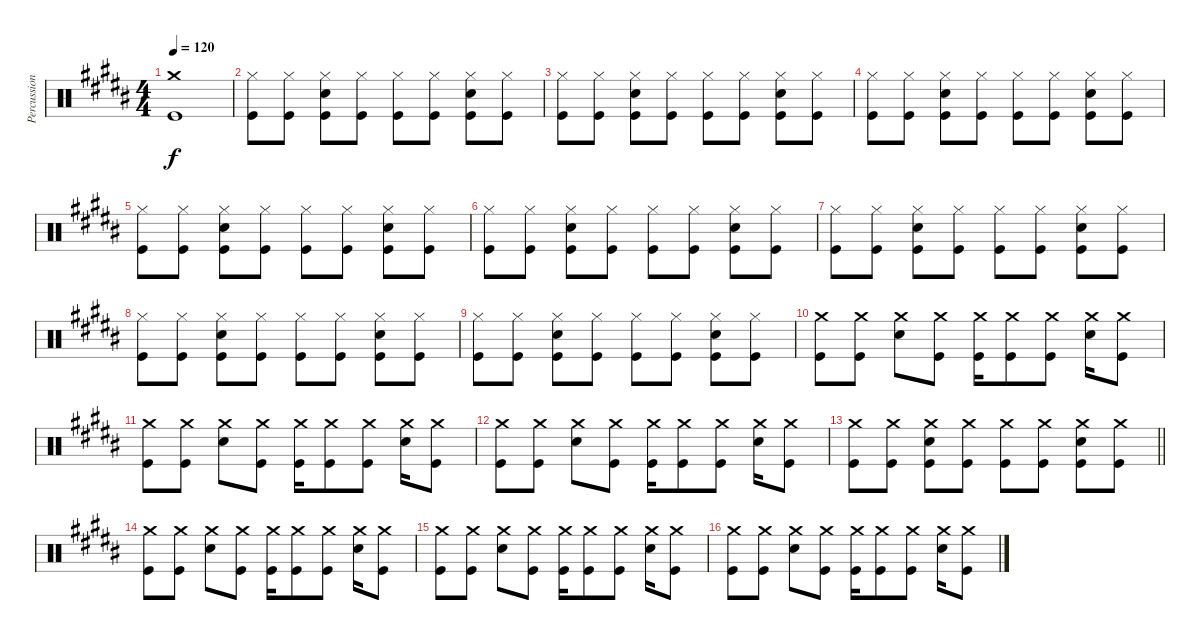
\track ("Percussion" "Percussion") {instrument percussion}
\staff {score}
\articulation defaults
\ts (4 4)
\tempo 120
\clef neutral
\ks b
("Crash medium (hit)" "Kick (hit)").1{dy f} |
("Hi-Hat (closed)" "Kick (hit)").8 ("Hi-Hat (closed)" "Kick (hit)").8 ("Hi-Hat (closed)" "Electric Snare (hit)" "Kick (hit)").8 ("Hi-Hat (closed)" "Kick (hit)").8 ("Hi-Hat (closed)" "Kick (hit)").8 ("Hi-Hat (closed)" "Kick (hit)").8 ("Hi-Hat (closed)" "Electric Snare (hit)" "Kick (hit)").8 ("Hi-Hat (closed)" "Kick (hit)").8 |
("Hi-Hat (closed)" "Kick (hit)").8 ("Hi-Hat (closed)" "Kick (hit)").8 ("Hi-Hat (closed)" "Electric Snare (hit)" "Kick (hit)").8 ("Hi-Hat (closed)" "Kick (hit)").8 ("Hi-Hat (closed)" "Kick (hit)").8 ("Hi-Hat (closed)" "Kick (hit)").8 ("Hi-Hat (closed)" "Electric Snare (hit)" "Kick (hit)").8 ("Hi-Hat (closed)" "Kick (hit)").8 |
("Hi-Hat (closed)" "Kick (hit)").8 ("Hi-Hat (closed)" "Kick (hit)").8 ("Hi-Hat (closed)" "Electric Snare (hit)" "Kick (hit)").8 ("Hi-Hat (closed)" "Kick (hit)").8 ("Hi-Hat (closed)" "Kick (hit)").8 ("Hi-Hat (closed)" "Kick (hit)").8 ("Hi-Hat (closed)" "Electric Snare (hit)" "Kick (hit)").8 ("Hi-Hat (closed)" "Kick (hit)").8 |
("Hi-Hat (closed)" "Kick (hit)").8 ("Hi-Hat (closed)" "Kick (hit)").8 ("Hi-Hat (closed)" "Electric Snare (hit)" "Kick (hit)").8 ("Hi-Hat (closed)" "Kick (hit)").8 ("Hi-Hat (closed)" "Kick (hit)").8 ("Hi-Hat (closed)" "Kick (hit)").8 ("Hi-Hat (closed)" "Electric Snare (hit)" "Kick (hit)").8 ("Hi-Hat (closed)" "Kick (hit)").8 |
("Hi-Hat (closed)" "Kick (hit)").8 ("Hi-Hat (closed)" "Kick (hit)").8 ("Hi-Hat (closed)" "Electric Snare (hit)" "Kick (hit)").8 ("Hi-Hat (closed)" "Kick (hit)").8 ("Hi-Hat (closed)" "Kick (hit)").8 ("Hi-Hat (closed)" "Kick (hit)").8 ("Hi-Hat (closed)" "Electric Snare (hit)" "Kick (hit)").8 ("Hi-Hat (closed)" "Kick (hit)").8 |
("Hi-Hat (closed)" "Kick (hit)").8 ("Hi-Hat (closed)" "Kick (hit)").8 ("Hi-Hat (closed)" "Electric Snare (hit)" "Kick (hit)").8 ("Hi-Hat (closed)" "Kick (hit)").8 ("Hi-Hat (closed)" "Kick (hit)").8 ("Hi-Hat (closed)" "Kick (hit)").8 ("Hi-Hat (closed)" "Electric Snare (hit)" "Kick (hit)").8 ("Hi-Hat (closed)" "Kick (hit)").8 |
("Hi-Hat (closed)" "Kick (hit)").8 ("Hi-Hat (closed)" "Kick (hit)").8 ("Hi-Hat (closed)" "Electric Snare (hit)" "Kick (hit)").8 ("Hi-Hat (closed)" "Kick (hit)").8 ("Hi-Hat (closed)" "Kick (hit)").8 ("Hi-Hat (closed)" "Kick (hit)").8 ("Hi-Hat (closed)" "Electric Snare (hit)" "Kick (hit)").8 ("Hi-Hat (closed)" "Kick (hit)").8 |
("Hi-Hat (closed)" "Kick (hit)").8 ("Hi-Hat (closed)" "Kick (hit)").8 ("Hi-Hat (closed)" "Electric Snare (hit)" "Kick (hit)").8 ("Hi-Hat (closed)" "Kick (hit)").8 ("Hi-Hat (closed)" "Kick (hit)").8 ("Hi-Hat (closed)" "Kick (hit)").8 ("Hi-Hat (closed)" "Electric Snare (hit)" "Kick (hit)").8 ("Hi-Hat (closed)" "Kick (hit)").8 |
("Crash medium (hit)" "Kick (hit)").8 ("Crash medium (hit)" "Kick (hit)").8 ("Crash medium (hit)" "Electric Snare (hit)").8 ("Kick (hit)" "Crash medium (hit)").8 ("Kick (hit)" "Crash medium (hit)").16 ("Kick (hit)" "Crash medium (hit)").8 ("Kick (hit)" "Crash medium (hit)").8 ("Electric Snare (hit)" "Crash medium (hit)").16 ("Kick (hit)" "Crash medium (hit)").8 |
("Crash medium (hit)" "Kick (hit)").8 ("Crash medium (hit)" "Kick (hit)").8 ("Crash medium (hit)" "Electric Snare (hit)").8 ("Kick (hit)" "Crash medium (hit)").8 ("Kick (hit)" "Crash medium (hit)").16 ("Kick (hit)" "Crash medium (hit)").8 ("Kick (hit)" "Crash medium (hit)").8 ("Electric Snare (hit)" "Crash medium (hit)").16 ("Kick (hit)" "Crash medium (hit)").8 |
("Crash medium (hit)" "Kick (hit)").8 ("Crash medium (hit)" "Kick (hit)").8 ("Crash medium (hit)" "Electric Snare (hit)").8 ("Kick (hit)" "Crash medium (hit)").8 ("Kick (hit)" "Crash medium (hit)").16 ("Kick (hit)" "Crash medium (hit)").8 ("Kick (hit)" "Crash medium (hit)").8 ("Electric Snare (hit)" "Crash medium (hit)").16 ("Kick (hit)" "Crash medium (hit)").8 |
\barLineRight lightlight
("Crash medium (hit)" "Kick (hit)").8 ("Crash medium (hit)" "Kick (hit)").8 ("Electric Snare (hit)" "Crash medium (hit)" "Kick (hit)").8 ("Crash medium (hit)" "Kick (hit)").8 ("Crash medium (hit)" "Kick (hit)").8 ("Crash medium (hit)" "Kick (hit)").8 ("Electric Snare (hit)" "Crash medium (hit)" "Kick (hit)").8 ("Crash medium (hit)" "Kick (hit)").8 |
("Crash medium (hit)" "Kick (hit)").8 ("Crash medium (hit)" "Kick (hit)").8 ("Crash medium (hit)" "Electric Snare (hit)").8 ("Kick (hit)" "Crash medium (hit)").8 ("Kick (hit)" "Crash medium (hit)").16 ("Kick (hit)" "Crash medium (hit)").8 ("Kick (hit)" "Crash medium (hit)").8 ("Electric Snare (hit)" "Crash medium (hit)").16 ("Kick (hit)" "Crash medium (hit)").8 |
("Crash medium (hit)" "Kick (hit)").8 ("Crash medium (hit)" "Kick (hit)").8 ("Crash medium (hit)" "Electric Snare (hit)").8 ("Kick (hit)" "Crash medium (hit)").8 ("Kick (hit)" "Crash medium (hit)").16 ("Kick (hit)" "Crash medium (hit)").8 ("Kick (hit)" "Crash medium (hit)").8 ("Electric Snare (hit)" "Crash medium (hit)").16 ("Kick (hit)" "Crash medium (hit)").8 |
("Crash medium (hit)" "Kick (hit)").8 ("Crash medium (hit)" "Kick (hit)").8 ("Crash medium (hit)" "Electric Snare (hit)").8 ("Kick (hit)" "Crash medium (hit)").8 ("Kick (hit)" "Crash medium (hit)").16 ("Kick (hit)" "Crash medium (hit)").8 ("Kick (hit)" "Crash medium (hit)").8 ("Electric Snare (hit)" "Crash medium (hit)").16 ("Kick (hit)" "Crash medium (hit)").8
